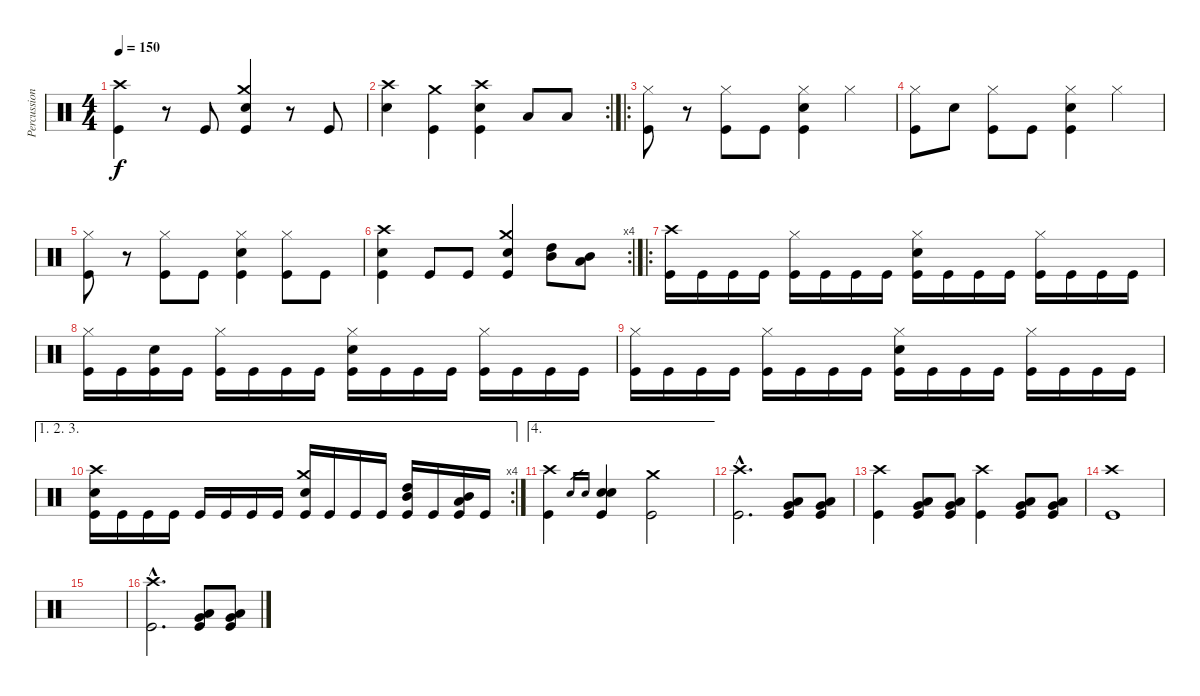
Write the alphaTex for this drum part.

\track ("Percussion" "Percussion") {instrument percussion}
\staff {score}
\articulation defaults
\ts (4 4)
\tempo 150
\clef neutral
\ks c
("Crash high (hit)" "Kick (hit)").4{dy f} r.8 "Kick (hit)".8 ("Crash medium (hit)" "Snare (hit) 2" "Kick (hit)").4 r.8 "Kick (hit)".8 |
\rc 2
("Crash high (hit)" "Snare (hit) 2").4 ("Crash medium (hit)" "Kick (hit)").4 ("Crash high (hit)" "Snare (hit) 2" "Kick (hit)").4 "Low Tom (hit)".8 "Low Tom (hit)".8 |
\ro
("Hi-Hat (closed)" "Kick (hit)").8 r.8 ("Hi-Hat (closed)" "Kick (hit)").8 "Kick (hit)".8 ("Hi-Hat (closed)" "Snare (hit) 2" "Kick (hit)").4 "Hi-Hat (closed)".4 |
("Hi-Hat (closed)" "Kick (hit)").8 "Snare (hit) 2".8 ("Hi-Hat (closed)" "Kick (hit)").8 "Kick (hit)".8 ("Hi-Hat (closed)" "Snare (hit) 2" "Kick (hit)").4 "Hi-Hat (closed)".4 |
("Hi-Hat (closed)" "Kick (hit)").8 r.8 ("Hi-Hat (closed)" "Kick (hit)").8 "Kick (hit)".8 ("Hi-Hat (closed)" "Snare (hit) 2" "Kick (hit)").4 ("Hi-Hat (closed)" "Kick (hit)").8 "Kick (hit)".8 |
\rc 4
("Crash high (hit)" "Snare (hit) 2" "Kick (hit)").4 "Kick (hit)".8 "Kick (hit)".8 ("Crash medium (hit)" "Snare (hit) 2" "Kick (hit)").4 ("Mid Tom (hit)" "High Tom (hit)").8 ("Low Tom (hit)" "Mid Tom (hit)").8 |
\ro
("Crash high (hit)" "Kick (hit)").16 "Kick (hit)".16 "Kick (hit)".16 "Kick (hit)".16 ("Hi-Hat (closed)" "Kick (hit)").16 "Kick (hit)".16 "Kick (hit)".16 "Kick (hit)".16 ("Hi-Hat (closed)" "Snare (hit) 2" "Kick (hit)").16 "Kick (hit)".16 "Kick (hit)".16 "Kick (hit)".16 ("Hi-Hat (closed)" "Kick (hit)").16 "Kick (hit)".16 "Kick (hit)".16 "Kick (hit)".16 |
("Hi-Hat (closed)" "Kick (hit)").16 "Kick (hit)".16 ("Snare (hit) 2" "Kick (hit)").16 "Kick (hit)".16 ("Hi-Hat (closed)" "Kick (hit)").16 "Kick (hit)".16 "Kick (hit)".16 "Kick (hit)".16 ("Hi-Hat (closed)" "Snare (hit) 2" "Kick (hit)").16 "Kick (hit)".16 "Kick (hit)".16 "Kick (hit)".16 ("Hi-Hat (closed)" "Kick (hit)").16 "Kick (hit)".16 "Kick (hit)".16 "Kick (hit)".16 |
("Hi-Hat (closed)" "Kick (hit)").16 "Kick (hit)".16 "Kick (hit)".16 "Kick (hit)".16 ("Hi-Hat (closed)" "Kick (hit)").16 "Kick (hit)".16 "Kick (hit)".16 "Kick (hit)".16 ("Hi-Hat (closed)" "Snare (hit) 2" "Kick (hit)").16 "Kick (hit)".16 "Kick (hit)".16 "Kick (hit)".16 ("Hi-Hat (closed)" "Kick (hit)").16 "Kick (hit)".16 "Kick (hit)".16 "Kick (hit)".16 |
\ae (1 2 3)
\rc 4
("Crash high (hit)" "Snare (hit) 2" "Kick (hit)").16 "Kick (hit)".16 "Kick (hit)".16 "Kick (hit)".16 "Kick (hit)".16 "Kick (hit)".16 "Kick (hit)".16 "Kick (hit)".16 ("Crash medium (hit)" "Snare (hit) 2" "Kick (hit)").16 "Kick (hit)".16 "Kick (hit)".16 "Kick (hit)".16 ("Mid Tom (hit)" "High Tom (hit)" "Kick (hit)").16 "Kick (hit)".16 ("Low Tom (hit)" "Mid Tom (hit)" "Kick (hit)").16 "Kick (hit)".16 |
\ae 4
("Crash high (hit)" "Kick (hit)").4 "Snare (hit) 2".16{gr} "Snare (hit) 2".16{gr} ("Snare (hit) 2" "Snare (hit) 2" "Kick (hit)").4 ("Crash medium (hit)" "Kick (hit)").2 |
("Crash high (hit)"{hac} "Kick (hit)"{hac}).2{d} ("Low Tom (hit)" "Very Low Tom (hit)" "Kick (hit)").8 ("Low Tom (hit)" "Very Low Tom (hit)" "Kick (hit)").8 |
("Crash high (hit)" "Kick (hit)").4 ("Low Tom (hit)" "Very Low Tom (hit)" "Kick (hit)").8 ("Low Tom (hit)" "Very Low Tom (hit)" "Kick (hit)").8 ("Crash high (hit)" "Kick (hit)").4 ("Low Tom (hit)" "Very Low Tom (hit)" "Kick (hit)").8 ("Low Tom (hit)" "Very Low Tom (hit)" "Kick (hit)").8 |
("Crash high (hit)" "Kick (hit)").1 |
|
("Crash high (hit)"{hac} "Kick (hit)"{hac}).2{d} ("Low Tom (hit)" "Very Low Tom (hit)" "Kick (hit)").8 ("Low Tom (hit)" "Very Low Tom (hit)" "Kick (hit)").8
